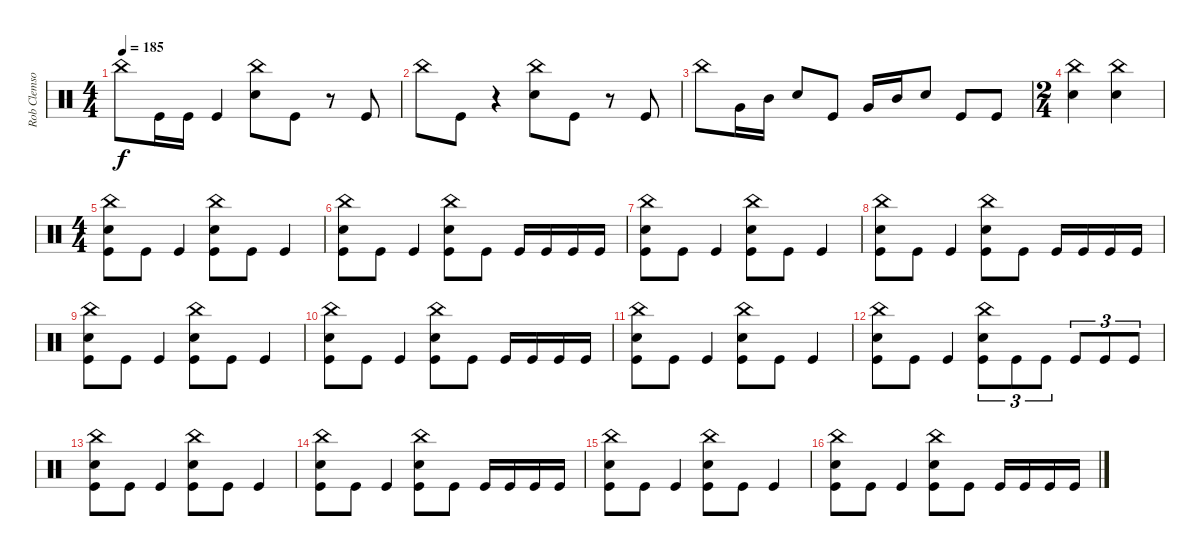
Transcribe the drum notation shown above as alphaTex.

\track ("Rob Clemson (Drums)" "Rob Clemso") {instrument percussion}
\staff {score}
\articulation defaults
\ts (4 4)
\tempo 185
\clef neutral
\ks c "China (hit)".8{dy f} "Kick (hit)".16 "Kick (hit)".16 "Kick (hit)".4
("China (hit)" "Electric Snare (hit)").8 "Kick (hit)".8 r.8 "Kick (hit)".8 |
"China (hit)".8 "Kick (hit)".8 r.4 ("China (hit)" "Electric Snare (hit)").8 "Kick (hit)".8 r.8 "Kick (hit)".8 |
"China (hit)".8 "Very Low Tom (hit)".16 "Mid Tom (hit)".16 "Electric Snare (hit)".8 "Kick (hit)".8 "Very Low Tom (hit)".16 "Mid Tom (hit)".16 "Electric Snare (hit)".8 "Kick (hit)".8 "Kick (hit)".8 |
\ts (2 4)
("China (hit)" "Electric Snare (hit)").4 ("China (hit)" "Electric Snare (hit)").4 |
\ts (4 4)
("China (hit)" "Electric Snare (hit)" "Kick (hit)").8 "Kick (hit)".8 "Kick (hit)".4 ("China (hit)" "Electric Snare (hit)" "Kick (hit)").8 "Kick (hit)".8 "Kick (hit)".4 |
("China (hit)" "Electric Snare (hit)" "Kick (hit)").8 "Kick (hit)".8 "Kick (hit)".4 ("China (hit)" "Electric Snare (hit)" "Kick (hit)").8 "Kick (hit)".8 "Kick (hit)".16 "Kick (hit)".16 "Kick (hit)".16 "Kick (hit)".16 |
("China (hit)" "Electric Snare (hit)" "Kick (hit)").8 "Kick (hit)".8 "Kick (hit)".4 ("China (hit)" "Electric Snare (hit)" "Kick (hit)").8 "Kick (hit)".8 "Kick (hit)".4 |
("China (hit)" "Electric Snare (hit)" "Kick (hit)").8 "Kick (hit)".8 "Kick (hit)".4 ("China (hit)" "Electric Snare (hit)" "Kick (hit)").8 "Kick (hit)".8 "Kick (hit)".16 "Kick (hit)".16 "Kick (hit)".16 "Kick (hit)".16 |
("China (hit)" "Electric Snare (hit)" "Kick (hit)").8 "Kick (hit)".8 "Kick (hit)".4 ("China (hit)" "Electric Snare (hit)" "Kick (hit)").8 "Kick (hit)".8 "Kick (hit)".4 |
("China (hit)" "Electric Snare (hit)" "Kick (hit)").8 "Kick (hit)".8 "Kick (hit)".4 ("China (hit)" "Electric Snare (hit)" "Kick (hit)").8 "Kick (hit)".8 "Kick (hit)".16 "Kick (hit)".16 "Kick (hit)".16 "Kick (hit)".16 |
("China (hit)" "Electric Snare (hit)" "Kick (hit)").8 "Kick (hit)".8 "Kick (hit)".4 ("China (hit)" "Electric Snare (hit)" "Kick (hit)").8 "Kick (hit)".8 "Kick (hit)".4 |
("China (hit)" "Electric Snare (hit)" "Kick (hit)").8 "Kick (hit)".8 "Kick (hit)".4 ("China (hit)" "Electric Snare (hit)" "Kick (hit)").8{tu (3 2)} "Kick (hit)".8{tu (3 2)} "Kick (hit)".8{tu (3 2)} "Kick (hit)".8{tu (3 2)} "Kick (hit)".8{tu (3 2)} "Kick (hit)".8{tu (3 2)} |
("China (hit)" "Electric Snare (hit)" "Kick (hit)").8 "Kick (hit)".8 "Kick (hit)".4 ("China (hit)" "Electric Snare (hit)" "Kick (hit)").8 "Kick (hit)".8 "Kick (hit)".4 |
("China (hit)" "Electric Snare (hit)" "Kick (hit)").8 "Kick (hit)".8 "Kick (hit)".4 ("China (hit)" "Electric Snare (hit)" "Kick (hit)").8 "Kick (hit)".8 "Kick (hit)".16 "Kick (hit)".16 "Kick (hit)".16 "Kick (hit)".16 |
("China (hit)" "Electric Snare (hit)" "Kick (hit)").8 "Kick (hit)".8 "Kick (hit)".4 ("China (hit)" "Electric Snare (hit)" "Kick (hit)").8 "Kick (hit)".8 "Kick (hit)".4 |
("China (hit)" "Electric Snare (hit)" "Kick (hit)").8 "Kick (hit)".8 "Kick (hit)".4 ("China (hit)" "Electric Snare (hit)" "Kick (hit)").8 "Kick (hit)".8 "Kick (hit)".16 "Kick (hit)".16 "Kick (hit)".16 "Kick (hit)".16
